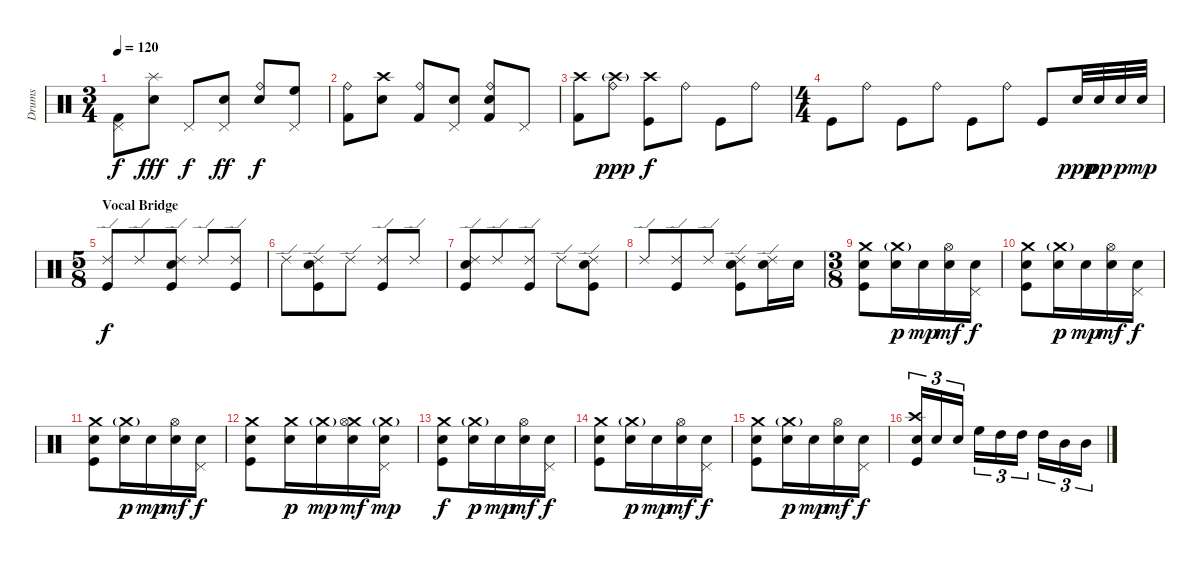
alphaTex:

\track ("Drums" "Drums") {instrument percussion}
\staff {score}
\articulation defaults
\ts (3 4)
\tempo 120
\clef neutral
\ks c
("Pedal Hi-Hat (hit)" "Kick (hit) 2").8{dy f} ("Splash (hit)" "Electric Snare (hit)").8{dy fff} "Pedal Hi-Hat (hit)".8{dy f} ("Pedal Hi-Hat (hit)" "Electric Snare (hit)").8{dy ff} ("Ride (bell)" "Electric Snare (hit)").8{dy f} ("Pedal Hi-Hat (hit)" "High Floor Tom (hit)").8 |
("Ride (bell)" "Kick (hit) 2").8 ("Crash high (hit)" "Electric Snare (hit)").8 ("Ride (bell)" "Kick (hit) 2").8 ("Pedal Hi-Hat (hit)" "Electric Snare (hit)").8 ("Ride (bell)" "Electric Snare (hit)" "Kick (hit) 2").8 "Pedal Hi-Hat (hit)".8 |
("Crash high (hit)" "Kick (hit) 2").8 ("Crash high (hit)"{g} "Ride (bell)").8{dy ppp} ("Crash high (hit)" "Kick (hit)").8{dy f} "Ride (bell)".8 "Kick (hit)".8 "Ride (bell)".8 |
\ts (4 4)
"Kick (hit)".8 "Ride (bell)".8 "Kick (hit)".8 "Ride (bell)".8 "Kick (hit)".8 "Ride (bell)".8 "Kick (hit)".8 "Electric Snare (hit)".32{dy ppp} "Electric Snare (hit)".32{dy pp} "Electric Snare (hit)".32{dy p} "Electric Snare (hit)".32{dy mp} |
\ts (5 8)
\section ("" "Vocal Bridge")
("Ride (edge) 2" "Kick (hit)").8{dy f} "Ride (edge) 2".8 ("Ride (edge) 2" "Electric Snare (hit)" "Kick (hit)").8 "Ride (edge) 2".8 ("Ride (edge) 2" "Kick (hit)").8 |
"Ride (edge) 2".8 ("Ride (edge) 2" "Electric Snare (hit)" "Kick (hit)").8 "Ride (edge) 2".8 ("Ride (edge) 2" "Kick (hit)").8 "Ride (edge) 2".8 |
("Ride (edge) 2" "Electric Snare (hit)" "Kick (hit)").8 "Ride (edge) 2".8 ("Ride (edge) 2" "Kick (hit)").8 "Ride (edge) 2".8 ("Ride (edge) 2" "Electric Snare (hit)" "Kick (hit)").8 |
"Ride (edge) 2".8 ("Ride (edge) 2" "Kick (hit)").8 "Ride (edge) 2".8 ("Ride (edge) 2" "Electric Snare (hit)" "Kick (hit)").8 ("Ride (edge) 2" "Electric Snare (hit)").16 "Electric Snare (hit)".16 |
\ts (3 8)
("Crash medium (hit)" "Electric Snare (hit)" "Kick (hit)").8 ("Crash medium (hit)"{g} "Electric Snare (hit)").16{dy p} "Electric Snare (hit)".16{dy mp} ("Hi-Hat (open)" "Electric Snare (hit)").16{dy mf} ("Pedal Hi-Hat (hit)" "Electric Snare (hit)").16{dy f} |
("Crash medium (hit)" "Electric Snare (hit)" "Kick (hit)").8 ("Crash medium (hit)"{g} "Electric Snare (hit)").16{dy p} "Electric Snare (hit)".16{dy mp} ("Hi-Hat (open)" "Electric Snare (hit)").16{dy mf} ("Pedal Hi-Hat (hit)" "Electric Snare (hit)").16{dy f} |
("Crash medium (hit)" "Electric Snare (hit)" "Kick (hit)").8 ("Crash medium (hit)"{g} "Electric Snare (hit)").16{dy p} "Electric Snare (hit)".16{dy mp} ("Hi-Hat (open)" "Electric Snare (hit)").16{dy mf} ("Pedal Hi-Hat (hit)" "Electric Snare (hit)").16{dy f} |
("Crash medium (hit)" "Electric Snare (hit)" "Kick (hit)").8 ("Crash medium (hit)" "Electric Snare (hit)").16{dy p} ("Crash medium (hit)"{g} "Electric Snare (hit)").16{dy mp} ("Crash medium (hit)" "Hi-Hat (open)" "Electric Snare (hit)").16{dy mf} ("Crash medium (hit)"{g} "Pedal Hi-Hat (hit)" "Electric Snare (hit)").16{dy mp} |
("Crash medium (hit)" "Electric Snare (hit)" "Kick (hit)").8{dy f} ("Crash medium (hit)"{g} "Electric Snare (hit)").16{dy p} "Electric Snare (hit)".16{dy mp} ("Hi-Hat (open)" "Electric Snare (hit)").16{dy mf} ("Pedal Hi-Hat (hit)" "Electric Snare (hit)").16{dy f} |
("Crash medium (hit)" "Electric Snare (hit)" "Kick (hit)").8 ("Crash medium (hit)"{g} "Electric Snare (hit)").16{dy p} "Electric Snare (hit)".16{dy mp} ("Hi-Hat (open)" "Electric Snare (hit)").16{dy mf} ("Pedal Hi-Hat (hit)" "Electric Snare (hit)").16{dy f} |
("Crash medium (hit)" "Electric Snare (hit)" "Kick (hit)").8 ("Crash medium (hit)"{g} "Electric Snare (hit)").16{dy p} "Electric Snare (hit)".16{dy mp} ("Hi-Hat (open)" "Electric Snare (hit)").16{dy mf} ("Pedal Hi-Hat (hit)" "Electric Snare (hit)").16{dy f} |
("Crash high (hit)" "Electric Snare (hit)" "Kick (hit)").16{tu (3 2)} "Electric Snare (hit)".16{tu (3 2)} "Electric Snare (hit)".16{tu (3 2)} "High Floor Tom (hit)".16{tu (3 2)} "High Tom (hit)".16{tu (3 2)} "High Tom (hit)".16{tu (3 2)} "High Tom (hit)".16{tu (3 2)} "Mid Tom (hit)".16{tu (3 2)} "Mid Tom (hit)".16{tu (3 2)}
